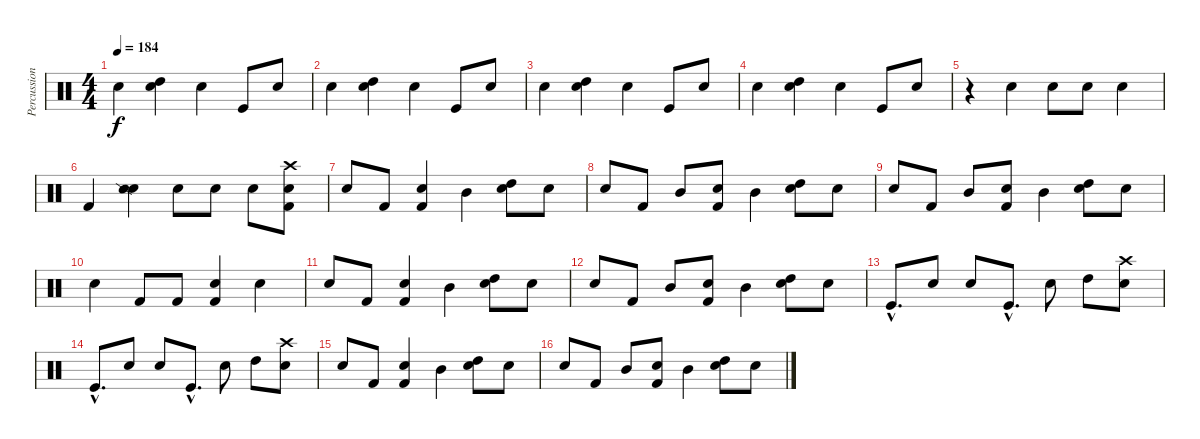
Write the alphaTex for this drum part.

\track ("Percussions" "Percussion") {instrument percussion}
\staff {score}
\articulation defaults
\ts (4 4)
\tempo 184
\clef neutral
\ks c "Metronome (bell)".4{dy f}
("Metronome (bell)" "High Tom (hit)").4 "Metronome (bell)".4 "Kick (hit)".8 "Metronome (bell)".8 |
"Metronome (bell)".4 ("Metronome (bell)" "High Tom (hit)").4 "Metronome (bell)".4 "Kick (hit)".8 "Metronome (bell)".8 |
"Metronome (bell)".4 ("Metronome (bell)" "High Tom (hit)").4 "Metronome (bell)".4 "Kick (hit)".8 "Metronome (bell)".8 |
"Metronome (bell)".4 ("Metronome (bell)" "High Tom (hit)").4 "Metronome (bell)".4 "Kick (hit)".8 "Metronome (bell)".8 |
r.4 "Metronome (bell)".4 "Metronome (bell)".8 "Metronome (bell)".8 "Metronome (bell)".4 |
"Kick (hit) 2".4 ("Metronome (bell)" "Snare (side stick) 2").4 "Metronome (bell)".8 "Metronome (bell)".8 "Metronome (bell)".8 ("Kick (hit) 2" "Metronome (bell)" "Crash high (hit)").8 |
"Metronome (bell)".8 "Kick (hit) 2".8 ("Metronome (bell)" "Kick (hit) 2").4 "Mid Tom (hit)".4 ("Metronome (bell)" "High Tom (hit)").8 "Metronome (bell)".8 |
"Metronome (bell)".8 "Kick (hit) 2".8 "Mid Tom (hit)".8 ("Metronome (bell)" "Kick (hit) 2").8 "Mid Tom (hit)".4 ("Metronome (bell)" "High Tom (hit)").8 "Metronome (bell)".8 |
"Metronome (bell)".8 "Kick (hit) 2".8 "Mid Tom (hit)".8 ("Metronome (bell)" "Kick (hit) 2").8 "Mid Tom (hit)".4 ("Metronome (bell)" "High Tom (hit)").8 "Metronome (bell)".8 |
"Metronome (bell)".4 "Kick (hit) 2".8 "Kick (hit) 2".8 ("Metronome (bell)" "Kick (hit) 2").4 "Metronome (bell)".4 |
"Metronome (bell)".8 "Kick (hit) 2".8 ("Metronome (bell)" "Kick (hit) 2").4 "Mid Tom (hit)".4 ("Metronome (bell)" "High Tom (hit)").8 "Metronome (bell)".8 |
"Metronome (bell)".8 "Kick (hit) 2".8 "Mid Tom (hit)".8 ("Metronome (bell)" "Kick (hit) 2").8 "Mid Tom (hit)".4 ("Metronome (bell)" "High Tom (hit)").8 "Metronome (bell)".8 |
"Kick (hit)"{hac}.8{d} "Metronome (bell)".8 "Metronome (bell)".8 "Kick (hit)"{hac}.8{d} "Metronome (bell)".8 "High Tom (hit)".8 ("Metronome (bell)" "Crash high (hit)").8 |
"Kick (hit)"{hac}.8{d} "Metronome (bell)".8 "Metronome (bell)".8 "Kick (hit)"{hac}.8{d} "Metronome (bell)".8 "High Tom (hit)".8 ("Metronome (bell)" "Crash high (hit)").8 |
"Metronome (bell)".8 "Kick (hit) 2".8 ("Metronome (bell)" "Kick (hit) 2").4 "Mid Tom (hit)".4 ("Metronome (bell)" "High Tom (hit)").8 "Metronome (bell)".8 |
"Metronome (bell)".8 "Kick (hit) 2".8 "Mid Tom (hit)".8 ("Metronome (bell)" "Kick (hit) 2").8 "Mid Tom (hit)".4 ("Metronome (bell)" "High Tom (hit)").8 "Metronome (bell)".8
